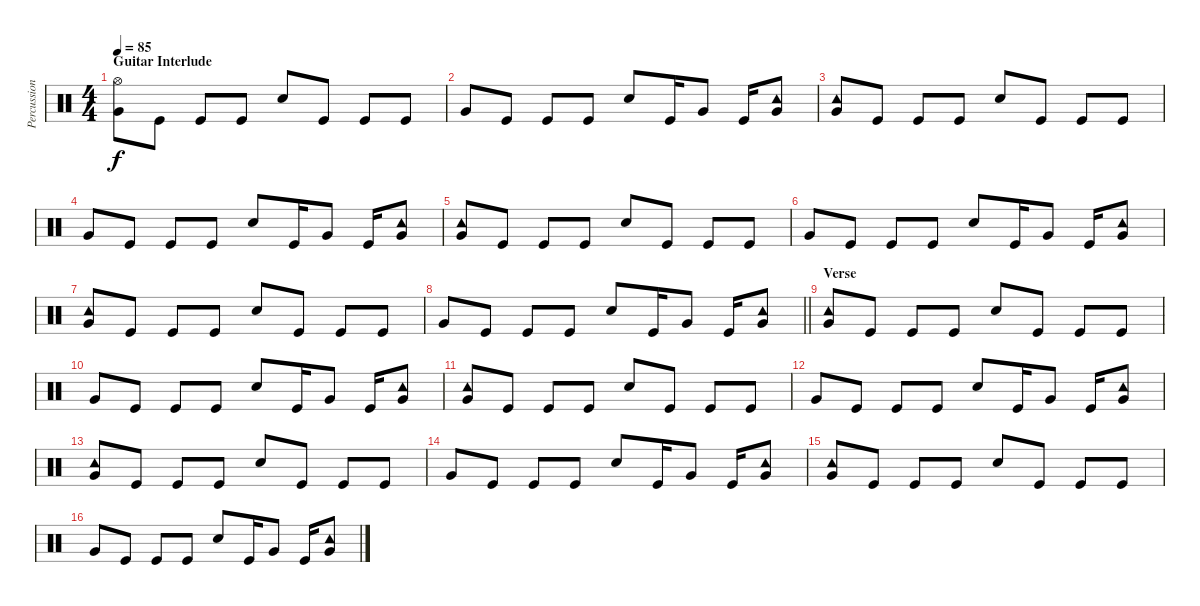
\track ("Percussion" "Percussion") {instrument percussion}
\staff {score}
\articulation defaults
\ts (4 4)
\section ("" "Guitar Interlude")
\tempo 85
\clef neutral
\ks c
("Hi-Hat (open)" "Very Low Tom (hit)").8{dy f} "Kick (hit)".8 "Kick (hit)".8 "Kick (hit)".8 "Electric Snare (hit)".8 "Kick (hit)".8 "Kick (hit)".8 "Kick (hit)".8 |
"Very Low Tom (hit)".8 "Kick (hit)".8 "Kick (hit)".8 "Kick (hit)".8 "Electric Snare (hit)".8 "Kick (hit)".16 "Very Low Tom (hit)".8 "Kick (hit)".16 ("Tambourine (hit)" "Very Low Tom (hit)").8 |
("Tambourine (hit)" "Very Low Tom (hit)").8 "Kick (hit)".8 "Kick (hit)".8 "Kick (hit)".8 "Electric Snare (hit)".8 "Kick (hit)".8 "Kick (hit)".8 "Kick (hit)".8 |
"Very Low Tom (hit)".8 "Kick (hit)".8 "Kick (hit)".8 "Kick (hit)".8 "Electric Snare (hit)".8 "Kick (hit)".16 "Very Low Tom (hit)".8 "Kick (hit)".16 ("Tambourine (hit)" "Very Low Tom (hit)").8 |
("Tambourine (hit)" "Very Low Tom (hit)").8 "Kick (hit)".8 "Kick (hit)".8 "Kick (hit)".8 "Electric Snare (hit)".8 "Kick (hit)".8 "Kick (hit)".8 "Kick (hit)".8 |
"Very Low Tom (hit)".8 "Kick (hit)".8 "Kick (hit)".8 "Kick (hit)".8 "Electric Snare (hit)".8 "Kick (hit)".16 "Very Low Tom (hit)".8 "Kick (hit)".16 ("Tambourine (hit)" "Very Low Tom (hit)").8 |
("Tambourine (hit)" "Very Low Tom (hit)").8 "Kick (hit)".8 "Kick (hit)".8 "Kick (hit)".8 "Electric Snare (hit)".8 "Kick (hit)".8 "Kick (hit)".8 "Kick (hit)".8 |
\barLineRight lightlight "Very Low Tom (hit)".8 "Kick (hit)".8 "Kick (hit)".8 "Kick (hit)".8 "Electric Snare (hit)".8 "Kick (hit)".16 "Very Low Tom (hit)".8 "Kick (hit)".16
("Tambourine (hit)" "Very Low Tom (hit)").8 |
\section ("" "Verse")
("Tambourine (hit)" "Very Low Tom (hit)").8 "Kick (hit)".8 "Kick (hit)".8 "Kick (hit)".8 "Electric Snare (hit)".8 "Kick (hit)".8 "Kick (hit)".8 "Kick (hit)".8 |
"Very Low Tom (hit)".8 "Kick (hit)".8 "Kick (hit)".8 "Kick (hit)".8 "Electric Snare (hit)".8 "Kick (hit)".16 "Very Low Tom (hit)".8 "Kick (hit)".16 ("Tambourine (hit)" "Very Low Tom (hit)").8 |
("Tambourine (hit)" "Very Low Tom (hit)").8 "Kick (hit)".8 "Kick (hit)".8 "Kick (hit)".8 "Electric Snare (hit)".8 "Kick (hit)".8 "Kick (hit)".8 "Kick (hit)".8 |
"Very Low Tom (hit)".8 "Kick (hit)".8 "Kick (hit)".8 "Kick (hit)".8 "Electric Snare (hit)".8 "Kick (hit)".16 "Very Low Tom (hit)".8 "Kick (hit)".16 ("Tambourine (hit)" "Very Low Tom (hit)").8 |
("Tambourine (hit)" "Very Low Tom (hit)").8 "Kick (hit)".8 "Kick (hit)".8 "Kick (hit)".8 "Electric Snare (hit)".8 "Kick (hit)".8 "Kick (hit)".8 "Kick (hit)".8 |
"Very Low Tom (hit)".8 "Kick (hit)".8 "Kick (hit)".8 "Kick (hit)".8 "Electric Snare (hit)".8 "Kick (hit)".16 "Very Low Tom (hit)".8 "Kick (hit)".16 ("Tambourine (hit)" "Very Low Tom (hit)").8 |
("Tambourine (hit)" "Very Low Tom (hit)").8 "Kick (hit)".8 "Kick (hit)".8 "Kick (hit)".8 "Electric Snare (hit)".8 "Kick (hit)".8 "Kick (hit)".8 "Kick (hit)".8 |
"Very Low Tom (hit)".8 "Kick (hit)".8 "Kick (hit)".8 "Kick (hit)".8 "Electric Snare (hit)".8 "Kick (hit)".16 "Very Low Tom (hit)".8 "Kick (hit)".16 ("Tambourine (hit)" "Very Low Tom (hit)").8
